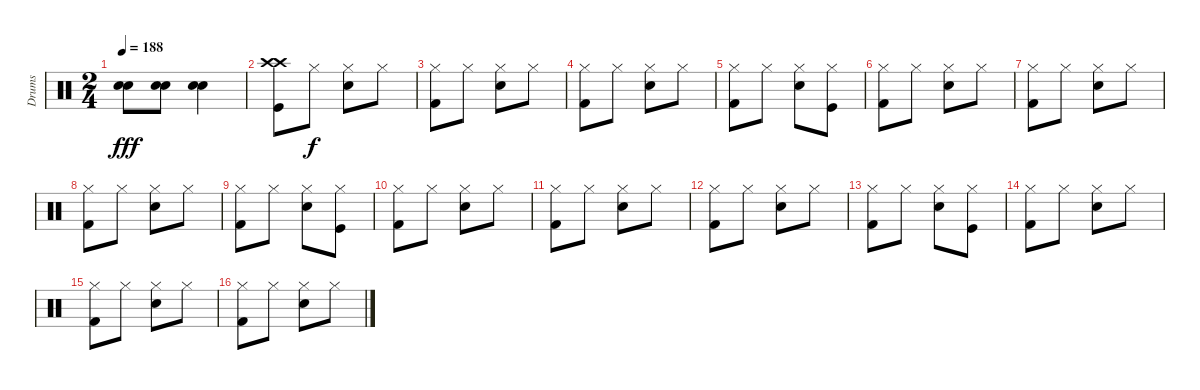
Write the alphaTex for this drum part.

\track ("Drums" "Drums") {instrument percussion}
\staff {score}
\articulation defaults
\ts (2 4)
\tempo 188
\clef neutral
\ks c
("Snare (hit) 2" "Snare (hit) 2").8{dy fff} ("Snare (hit) 2" "Snare (hit) 2").8 ("Snare (hit) 2" "Snare (hit) 2").4 |
("Crash high (hit)" "Crash high (hit)" "Kick (hit)").8 "Hi-Hat (closed)".8{dy f} ("Hi-Hat (closed)" "Snare (hit) 2").8 "Hi-Hat (closed)".8 |
("Hi-Hat (closed)" "Kick (hit) 2").8 "Hi-Hat (closed)".8 ("Hi-Hat (closed)" "Snare (hit) 2").8 "Hi-Hat (closed)".8 |
("Hi-Hat (closed)" "Kick (hit) 2").8 "Hi-Hat (closed)".8 ("Hi-Hat (closed)" "Snare (hit) 2").8 "Hi-Hat (closed)".8 |
("Hi-Hat (closed)" "Kick (hit) 2").8 "Hi-Hat (closed)".8 ("Hi-Hat (closed)" "Snare (hit) 2").8 ("Hi-Hat (closed)" "Kick (hit)").8 |
("Hi-Hat (closed)" "Kick (hit) 2").8 "Hi-Hat (closed)".8 ("Hi-Hat (closed)" "Snare (hit) 2").8 "Hi-Hat (closed)".8 |
("Hi-Hat (closed)" "Kick (hit) 2").8 "Hi-Hat (closed)".8 ("Hi-Hat (closed)" "Snare (hit) 2").8 "Hi-Hat (closed)".8 |
("Hi-Hat (closed)" "Kick (hit) 2").8 "Hi-Hat (closed)".8 ("Hi-Hat (closed)" "Snare (hit) 2").8 "Hi-Hat (closed)".8 |
("Hi-Hat (closed)" "Kick (hit) 2").8 "Hi-Hat (closed)".8 ("Hi-Hat (closed)" "Snare (hit) 2").8 ("Hi-Hat (closed)" "Kick (hit)").8 |
("Hi-Hat (closed)" "Kick (hit) 2").8 "Hi-Hat (closed)".8 ("Hi-Hat (closed)" "Snare (hit) 2").8 "Hi-Hat (closed)".8 |
("Hi-Hat (closed)" "Kick (hit) 2").8 "Hi-Hat (closed)".8 ("Hi-Hat (closed)" "Snare (hit) 2").8 "Hi-Hat (closed)".8 |
("Hi-Hat (closed)" "Kick (hit) 2").8 "Hi-Hat (closed)".8 ("Hi-Hat (closed)" "Snare (hit) 2").8 "Hi-Hat (closed)".8 |
("Hi-Hat (closed)" "Kick (hit) 2").8 "Hi-Hat (closed)".8 ("Hi-Hat (closed)" "Snare (hit) 2").8 ("Hi-Hat (closed)" "Kick (hit)").8 |
("Hi-Hat (closed)" "Kick (hit) 2").8 "Hi-Hat (closed)".8 ("Hi-Hat (closed)" "Snare (hit) 2").8 "Hi-Hat (closed)".8 |
("Hi-Hat (closed)" "Kick (hit) 2").8 "Hi-Hat (closed)".8 ("Hi-Hat (closed)" "Snare (hit) 2").8 "Hi-Hat (closed)".8 |
("Hi-Hat (closed)" "Kick (hit) 2").8 "Hi-Hat (closed)".8 ("Hi-Hat (closed)" "Snare (hit) 2").8 "Hi-Hat (closed)".8
